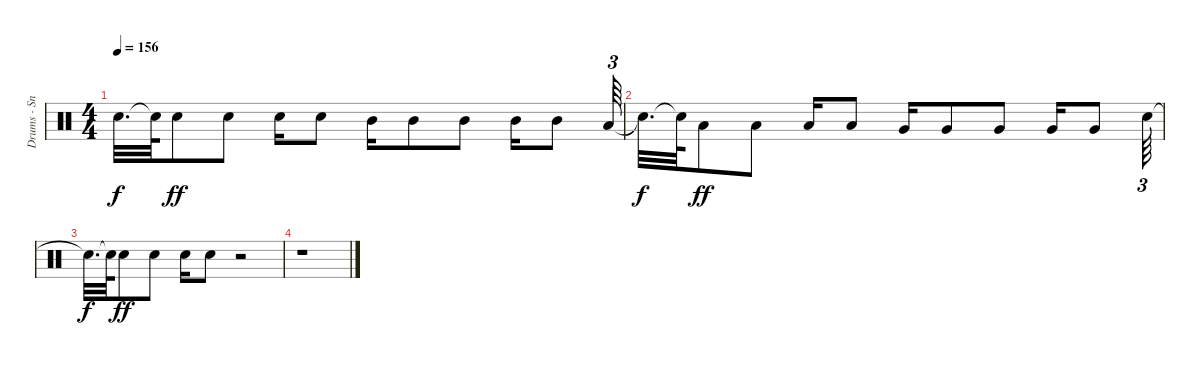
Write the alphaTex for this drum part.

\track ("Drums - Snare/Toms" "Drums - Sn") {instrument percussion}
\staff {score}
\articulation defaults
\ts (4 4)
\tempo 156
\clef neutral
\ks c "Snare (hit)"{t}.32{d dy f} "Snare (hit)"{t}.64 "Electric Snare (hit)".8{dy ff} "Electric Snare (hit)".8 "Electric Snare (hit)".16 "Electric Snare (hit)".8 "Mid Tom (hit)".16 "Mid Tom (hit)".8 "Mid Tom (hit)".8 "Mid Tom (hit)".16 "Mid Tom (hit)".8 "Low Tom (hit)".64{tu (3 2)}
|
"Snare (hit)"{t}.32{d dy f} "Snare (hit)"{t}.64 "Low Tom (hit)".8{dy ff} "Low Tom (hit)".8 "Low Tom (hit)".16 "Low Tom (hit)".8 "Very Low Tom (hit)".16 "Very Low Tom (hit)".8 "Very Low Tom (hit)".8 "Very Low Tom (hit)".16 "Very Low Tom (hit)".8 "Electric Snare (hit)".64{tu (3 2)} |
"Snare (hit)"{t}.32{d dy f} "Snare (hit)"{t}.64 "Electric Snare (hit)".8{dy ff} "Electric Snare (hit)".8 "Electric Snare (hit)".16 "Electric Snare (hit)".8 r.2 |
r.1
